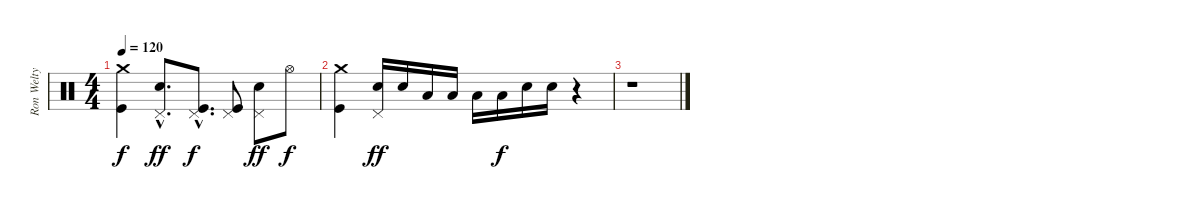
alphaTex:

\track ("Ron Welty" "Ron Welty") {instrument percussion}
\staff {score}
\articulation defaults
\ts (4 4)
\tempo 120
\clef neutral
\ks c
("Crash medium (hit)" "Kick (hit)").4{dy f} ("Pedal Hi-Hat (hit)"{hac} "Snare (hit) 2"{hac}).8{d dy ff} ("Pedal Hi-Hat (hit)"{hac} "Kick (hit)"{hac}).8{d dy f} ("Pedal Hi-Hat (hit)" "Kick (hit)").8 ("Pedal Hi-Hat (hit)" "Snare (hit) 2").8{dy ff} "Hi-Hat (open)".8{dy f} |
("Crash medium (hit)" "Kick (hit)").4 ("Pedal Hi-Hat (hit)" "Snare (hit) 2").16{dy ff} "Snare (hit) 2".16 "Low Tom (hit)".16 "Low Tom (hit)".16 "Low Floor Tom (hit)".16 "Low Floor Tom (hit)".16{dy f} "Snare (hit) 2".16 "Snare (hit) 2".16 r.4 |
r.1
